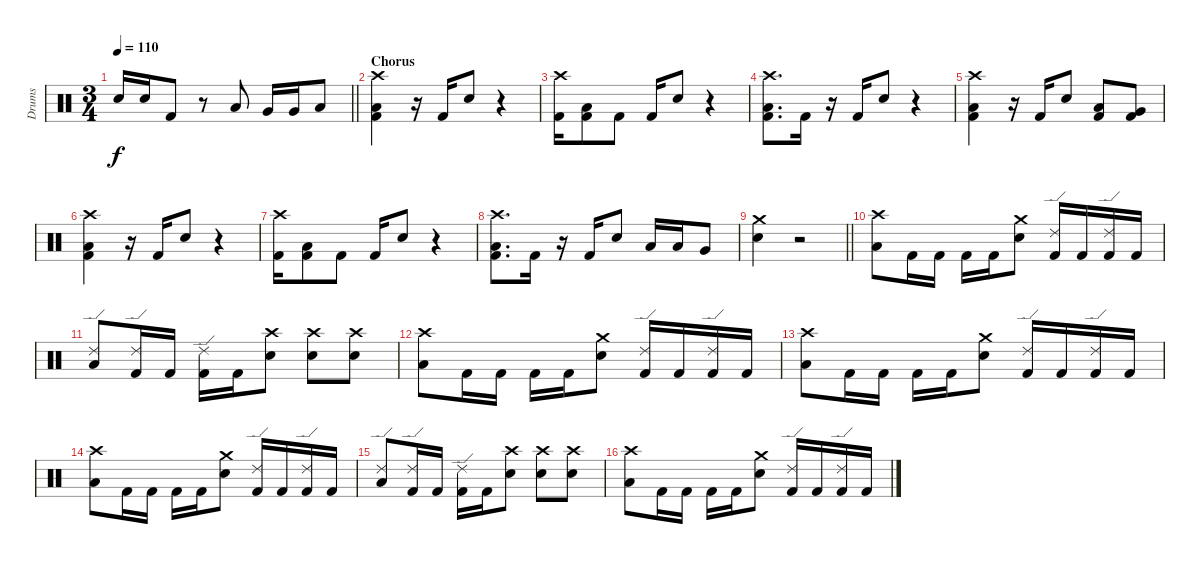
\track ("Drums" "Drums") {instrument percussion}
\staff {score}
\articulation defaults
\ts (3 4)
\tempo 110
\clef neutral
\barLineRight lightlight
\ks c "Snare (hit) 2".16{dy f} "Snare (hit) 2".16 "Kick (hit) 2".8
r.8 "Low Tom (hit)".8 "Very Low Tom (hit)".16 "Very Low Tom (hit)".16 "Low Floor Tom (hit)".8 |
\section ("" "Chorus")
("Crash high (hit)" "Low Floor Tom (hit)" "Kick (hit) 2").4 r.16 "Kick (hit) 2".16 "Snare (hit) 2".8 r.4 |
("Crash high (hit)" "Kick (hit) 2").16 ("Low Floor Tom (hit)" "Kick (hit) 2").8 "Kick (hit) 2".8 "Kick (hit) 2".16 "Snare (hit) 2".8 r.4 |
("Crash high (hit)" "Low Floor Tom (hit)" "Kick (hit) 2").8{d} "Kick (hit) 2".16 r.16 "Kick (hit) 2".16 "Snare (hit) 2".8 r.4 |
("Crash high (hit)" "Low Floor Tom (hit)" "Kick (hit) 2").4 r.16 "Kick (hit) 2".16 "Snare (hit) 2".8 ("Low Tom (hit)" "Kick (hit) 2").8 ("Very Low Tom (hit)" "Kick (hit) 2").8 |
("Crash high (hit)" "Low Floor Tom (hit)" "Kick (hit) 2").4 r.16 "Kick (hit) 2".16 "Snare (hit) 2".8 r.4 |
("Crash high (hit)" "Kick (hit) 2").16 ("Low Floor Tom (hit)" "Kick (hit) 2").8 "Kick (hit) 2".8 "Kick (hit) 2".16 "Snare (hit) 2".8 r.4 |
("Crash high (hit)" "Low Floor Tom (hit)" "Kick (hit) 2").8{d} "Kick (hit) 2".16 r.16 "Kick (hit) 2".16 "Snare (hit) 2".8 "Low Tom (hit)".16 "Low Tom (hit)".16 "Very Low Tom (hit)".8 |
\barLineRight lightlight
("Crash medium (hit)" "Snare (hit) 2").4 r.2 |
("Crash high (hit)" "Low Floor Tom (hit)").8 "Kick (hit) 2".16 "Kick (hit) 2".16 "Kick (hit) 2".16 "Kick (hit) 2".16 ("Crash medium (hit)" "Snare (hit) 2").8 ("Ride (edge) 2" "Kick (hit) 2").16 "Kick (hit) 2".16 ("Ride (edge) 2" "Kick (hit) 2").16 "Kick (hit) 2".16 |
("Ride (edge) 2" "Low Floor Tom (hit)").8 ("Ride (edge) 2" "Kick (hit) 2").16 "Kick (hit) 2".16 ("Ride (edge) 2" "Kick (hit) 2").16 "Kick (hit) 2".16 ("Crash high (hit)" "Snare (hit) 2").8 ("Crash high (hit)" "Snare (hit) 2").8 ("Crash high (hit)" "Snare (hit) 2").8 |
("Crash high (hit)" "Low Floor Tom (hit)").8 "Kick (hit) 2".16 "Kick (hit) 2".16 "Kick (hit) 2".16 "Kick (hit) 2".16 ("Crash medium (hit)" "Snare (hit) 2").8 ("Ride (edge) 2" "Kick (hit) 2").16 "Kick (hit) 2".16 ("Ride (edge) 2" "Kick (hit) 2").16 "Kick (hit) 2".16 |
("Crash high (hit)" "Low Floor Tom (hit)").8 "Kick (hit) 2".16 "Kick (hit) 2".16 "Kick (hit) 2".16 "Kick (hit) 2".16 ("Crash medium (hit)" "Snare (hit) 2").8 ("Ride (edge) 2" "Kick (hit) 2").16 "Kick (hit) 2".16 ("Ride (edge) 2" "Kick (hit) 2").16 "Kick (hit) 2".16 |
("Crash high (hit)" "Low Floor Tom (hit)").8 "Kick (hit) 2".16 "Kick (hit) 2".16 "Kick (hit) 2".16 "Kick (hit) 2".16 ("Crash medium (hit)" "Snare (hit) 2").8 ("Ride (edge) 2" "Kick (hit) 2").16 "Kick (hit) 2".16 ("Ride (edge) 2" "Kick (hit) 2").16 "Kick (hit) 2".16 |
("Ride (edge) 2" "Low Floor Tom (hit)").8 ("Ride (edge) 2" "Kick (hit) 2").16 "Kick (hit) 2".16 ("Ride (edge) 2" "Kick (hit) 2").16 "Kick (hit) 2".16 ("Crash high (hit)" "Snare (hit) 2").8 ("Crash high (hit)" "Snare (hit) 2").8 ("Crash high (hit)" "Snare (hit) 2").8 |
("Crash high (hit)" "Low Floor Tom (hit)").8 "Kick (hit) 2".16 "Kick (hit) 2".16 "Kick (hit) 2".16 "Kick (hit) 2".16 ("Crash medium (hit)" "Snare (hit) 2").8 ("Ride (edge) 2" "Kick (hit) 2").16 "Kick (hit) 2".16 ("Ride (edge) 2" "Kick (hit) 2").16 "Kick (hit) 2".16
